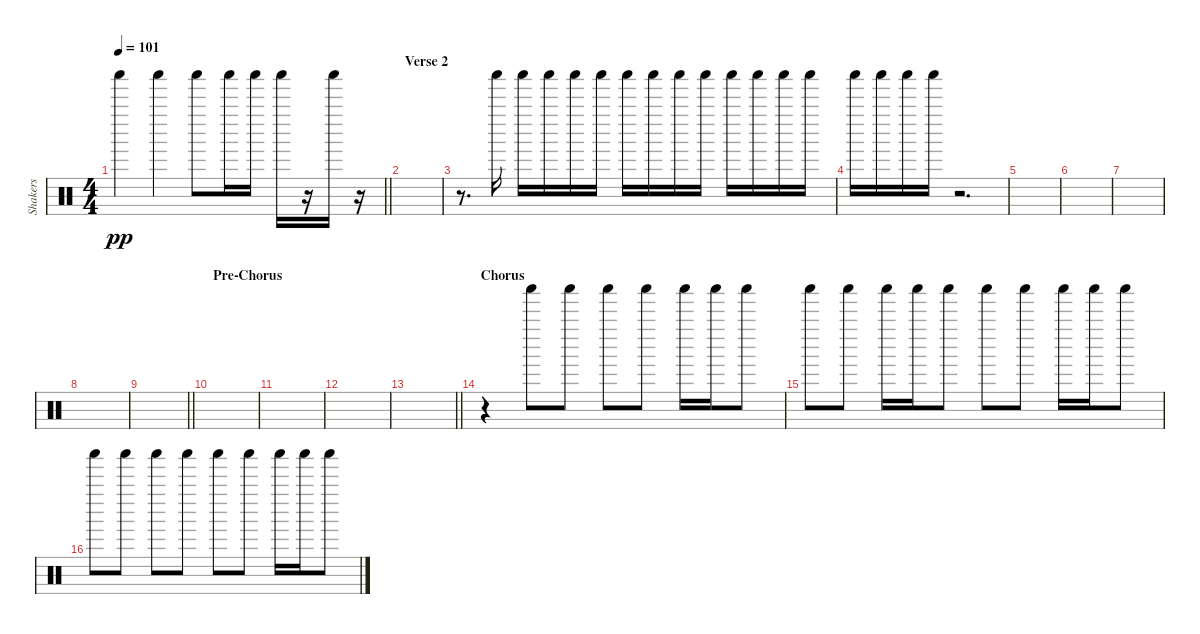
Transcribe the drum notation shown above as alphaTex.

\track ("Shakers" "Shakers") {instrument percussion}
\staff {score}
\articulation defaults
\ts (4 4)
\tempo 101
\clef neutral
\barLineRight lightlight
\ks c "Shaker (hit)".4{dy pp} "Shaker (hit)".4 "Shaker (hit)".8 "Shaker (hit)".16 "Shaker (hit)".16 "Shaker (hit)".16
r.16 "Shaker (hit)".16 r.16 |
\section ("" "Verse 2")
|
r.8{d} "Shaker (hit)".16 "Shaker (hit)".16 "Shaker (hit)".16 "Shaker (hit)".16 "Shaker (hit)".16 "Shaker (hit)".16 "Shaker (hit)".16 "Shaker (hit)".16 "Shaker (hit)".16 "Shaker (hit)".16 "Shaker (hit)".16 "Shaker (hit)".16 "Shaker (hit)".16 |
"Shaker (hit)".16 "Shaker (hit)".16 "Shaker (hit)".16 "Shaker (hit)".16 r.2{d} |
|
|
|
|
\barLineRight lightlight
|
\section ("" "Pre-Chorus")
|
|
|
\barLineRight lightlight
|
\section ("" "Chorus")
r.4 "Shaker (hit)".8 "Shaker (hit)".8 "Shaker (hit)".8 "Shaker (hit)".8 "Shaker (hit)".16 "Shaker (hit)".16 "Shaker (hit)".8 |
"Shaker (hit)".8 "Shaker (hit)".8 "Shaker (hit)".16 "Shaker (hit)".16 "Shaker (hit)".8 "Shaker (hit)".8 "Shaker (hit)".8 "Shaker (hit)".16 "Shaker (hit)".16 "Shaker (hit)".8 |
"Shaker (hit)".8 "Shaker (hit)".8 "Shaker (hit)".8 "Shaker (hit)".8 "Shaker (hit)".8 "Shaker (hit)".8 "Shaker (hit)".16 "Shaker (hit)".16 "Shaker (hit)".8
